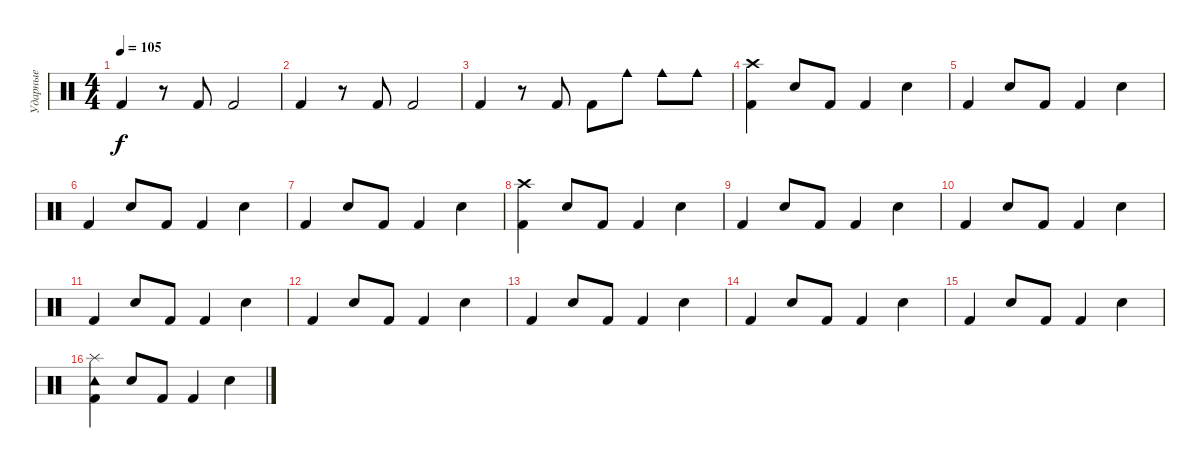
\track ("Ударные" "Ударные") {instrument percussion}
\staff {score}
\articulation defaults
\ts (4 4)
\tempo 105
\clef neutral
\ks c "Kick (hit) 2".4{dy f}
r.8 "Kick (hit) 2".8 "Kick (hit) 2".2 |
"Kick (hit) 2".4 r.8 "Kick (hit) 2".8 "Kick (hit) 2".2 |
"Kick (hit) 2".4 r.8 "Kick (hit) 2".8 "Kick (hit) 2".8 "Cowbell medium (hit)".8 "Cowbell medium (hit)".8 "Cowbell medium (hit)".8 |
("Crash high (hit)" "Kick (hit) 2").4 "Snare (hit) 2".8 "Kick (hit) 2".8 "Kick (hit) 2".4 "Snare (hit) 2".4 |
"Kick (hit) 2".4 "Snare (hit) 2".8 "Kick (hit) 2".8 "Kick (hit) 2".4 "Snare (hit) 2".4 |
"Kick (hit) 2".4 "Snare (hit) 2".8 "Kick (hit) 2".8 "Kick (hit) 2".4 "Snare (hit) 2".4 |
"Kick (hit) 2".4 "Snare (hit) 2".8 "Kick (hit) 2".8 "Kick (hit) 2".4 "Snare (hit) 2".4 |
("Crash high (hit)" "Kick (hit) 2").4 "Snare (hit) 2".8 "Kick (hit) 2".8 "Kick (hit) 2".4 "Snare (hit) 2".4 |
"Kick (hit) 2".4 "Snare (hit) 2".8 "Kick (hit) 2".8 "Kick (hit) 2".4 "Snare (hit) 2".4 |
"Kick (hit) 2".4 "Snare (hit) 2".8 "Kick (hit) 2".8 "Kick (hit) 2".4 "Snare (hit) 2".4 |
"Kick (hit) 2".4 "Snare (hit) 2".8 "Kick (hit) 2".8 "Kick (hit) 2".4 "Snare (hit) 2".4 |
"Kick (hit) 2".4 "Snare (hit) 2".8 "Kick (hit) 2".8 "Kick (hit) 2".4 "Snare (hit) 2".4 |
"Kick (hit) 2".4 "Snare (hit) 2".8 "Kick (hit) 2".8 "Kick (hit) 2".4 "Snare (hit) 2".4 |
"Kick (hit) 2".4 "Snare (hit) 2".8 "Kick (hit) 2".8 "Kick (hit) 2".4 "Snare (hit) 2".4 |
"Kick (hit) 2".4 "Snare (hit) 2".8 "Kick (hit) 2".8 "Kick (hit) 2".4 "Snare (hit) 2".4 |
("Tambourine (hit)" "Kick (hit) 2" "Splash (hit)").4 "Snare (hit) 2".8 "Kick (hit) 2".8 "Kick (hit) 2".4 "Snare (hit) 2".4
